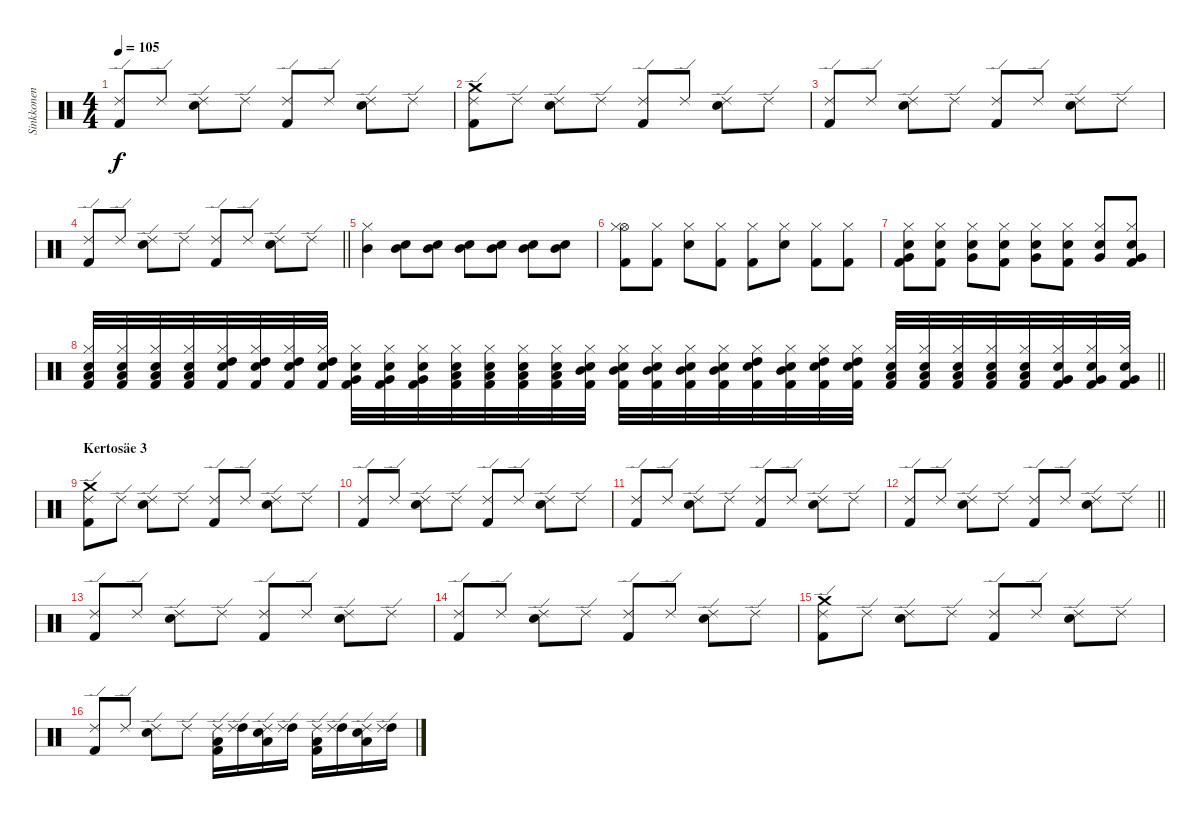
\track ("Sinkkonen" "Sinkkonen") {instrument percussion}
\staff {score}
\articulation defaults
\ts (4 4)
\tempo 105
\clef neutral
\ks c
("Ride (edge) 2" "Kick (hit) 2").8{dy f} "Ride (edge) 2".8 ("Ride (edge) 2" "Electric Snare (hit)").8 "Ride (edge) 2".8 ("Ride (edge) 2" "Kick (hit) 2").8 "Ride (edge) 2".8 ("Ride (edge) 2" "Electric Snare (hit)").8 "Ride (edge) 2".8 |
("Crash medium (hit)" "Ride (edge) 2" "Kick (hit) 2").8 "Ride (edge) 2".8 ("Ride (edge) 2" "Electric Snare (hit)").8 "Ride (edge) 2".8 ("Ride (edge) 2" "Kick (hit) 2").8 "Ride (edge) 2".8 ("Ride (edge) 2" "Electric Snare (hit)").8 "Ride (edge) 2".8 |
("Ride (edge) 2" "Kick (hit) 2").8 "Ride (edge) 2".8 ("Ride (edge) 2" "Electric Snare (hit)").8 "Ride (edge) 2".8 ("Ride (edge) 2" "Kick (hit) 2").8 "Ride (edge) 2".8 ("Ride (edge) 2" "Electric Snare (hit)").8 "Ride (edge) 2".8 |
\barLineRight lightlight
("Ride (edge) 2" "Kick (hit) 2").8 "Ride (edge) 2".8 ("Ride (edge) 2" "Electric Snare (hit)").8 "Ride (edge) 2".8 ("Ride (edge) 2" "Kick (hit) 2").8 "Ride (edge) 2".8 ("Ride (edge) 2" "Electric Snare (hit)").8 "Ride (edge) 2".8 |
("Mid Tom (hit)" "Hi-Hat (closed)").4 ("Mid Tom (hit)" "Electric Snare (hit)").8 ("Mid Tom (hit)" "Electric Snare (hit)").8 ("Mid Tom (hit)" "Electric Snare (hit)").8 ("Mid Tom (hit)" "Electric Snare (hit)").8 ("Mid Tom (hit)" "Electric Snare (hit)").8 ("Mid Tom (hit)" "Electric Snare (hit)").8 |
("Kick (hit) 2" "Hi-Hat (open)" "Hi-Hat (closed)").8 ("Kick (hit) 2" "Hi-Hat (closed)").8 ("Electric Snare (hit)" "Hi-Hat (closed)").8 ("Kick (hit) 2" "Hi-Hat (closed)").8 ("Kick (hit) 2" "Hi-Hat (closed)").8 ("Electric Snare (hit)" "Hi-Hat (closed)").8 ("Kick (hit) 2" "Hi-Hat (closed)").8 ("Kick (hit) 2" "Hi-Hat (closed)").8 |
("Electric Snare (hit)" "Very Low Tom (hit)" "Kick (hit) 2" "Hi-Hat (closed)").8 ("Electric Snare (hit)" "Kick (hit) 2" "Hi-Hat (closed)").8 ("Electric Snare (hit)" "Very Low Tom (hit)" "Hi-Hat (closed)").8 ("Electric Snare (hit)" "Kick (hit) 2" "Hi-Hat (closed)").8 ("Electric Snare (hit)" "Very Low Tom (hit)" "Hi-Hat (closed)").8 ("Electric Snare (hit)" "Kick (hit) 2" "Hi-Hat (closed)").8 ("Electric Snare (hit)" "Very Low Tom (hit)" "Hi-Hat (closed)").8 ("Electric Snare (hit)" "Kick (hit) 2" "Very Low Tom (hit)" "Hi-Hat (closed)").8 |
\barLineRight lightlight
("Hi-Hat (closed)" "Electric Snare (hit)" "Low Tom (hit)" "Kick (hit) 2").32 ("Hi-Hat (closed)" "Electric Snare (hit)" "Low Tom (hit)" "Kick (hit) 2").32 ("Hi-Hat (closed)" "Electric Snare (hit)" "Low Tom (hit)" "Kick (hit) 2").32 ("Hi-Hat (closed)" "Electric Snare (hit)" "Low Tom (hit)" "Kick (hit) 2").32 ("Hi-Hat (closed)" "Electric Snare (hit)" "High Tom (hit)" "Kick (hit) 2").32 ("Hi-Hat (closed)" "Electric Snare (hit)" "High Tom (hit)" "Kick (hit) 2").32 ("Hi-Hat (closed)" "Electric Snare (hit)" "High Tom (hit)" "Kick (hit) 2").32 ("Hi-Hat (closed)" "Electric Snare (hit)" "High Tom (hit)" "Kick (hit) 2").32 ("Hi-Hat (closed)" "Electric Snare (hit)" "Very Low Tom (hit)" "Kick (hit) 2").32 ("Hi-Hat (closed)" "Electric Snare (hit)" "Very Low Tom (hit)" "Kick (hit) 2").32 ("Hi-Hat (closed)" "Electric Snare (hit)" "Very Low Tom (hit)" "Kick (hit) 2").32 ("Hi-Hat (closed)" "Electric Snare (hit)" "Low Floor Tom (hit)" "Kick (hit) 2").32 ("Hi-Hat (closed)" "Electric Snare (hit)" "Low Floor Tom (hit)" "Kick (hit) 2").32 ("Hi-Hat (closed)" "Electric Snare (hit)" "Low Floor Tom (hit)" "Kick (hit) 2").32 ("Hi-Hat (closed)" "Electric Snare (hit)" "Low Floor Tom (hit)" "Kick (hit) 2").32 ("Hi-Hat (closed)" "Electric Snare (hit)" "Mid Tom (hit)" "Kick (hit) 2").32 ("Hi-Hat (closed)" "Electric Snare (hit)" "Mid Tom (hit)" "Kick (hit) 2").32 ("Hi-Hat (closed)" "Electric Snare (hit)" "Mid Tom (hit)" "Kick (hit) 2").32 ("Hi-Hat (closed)" "Electric Snare (hit)" "Mid Tom (hit)" "Kick (hit) 2").32 ("Hi-Hat (closed)" "Electric Snare (hit)" "Mid Tom (hit)" "Kick (hit) 2").32 ("Hi-Hat (closed)" "Electric Snare (hit)" "High Tom (hit)" "Kick (hit) 2").32 ("Hi-Hat (closed)" "Electric Snare (hit)" "Mid Tom (hit)" "Kick (hit) 2").32 ("Hi-Hat (closed)" "Electric Snare (hit)" "High Tom (hit)" "Kick (hit) 2").32 ("Hi-Hat (closed)" "Electric Snare (hit)" "High Tom (hit)" "Kick (hit) 2").32 ("Hi-Hat (closed)" "Electric Snare (hit)" "Low Tom (hit)" "Kick (hit) 2").32 ("Hi-Hat (closed)" "Electric Snare (hit)" "Low Tom (hit)" "Kick (hit) 2").32 ("Hi-Hat (closed)" "Electric Snare (hit)" "Low Tom (hit)" "Kick (hit) 2").32 ("Hi-Hat (closed)" "Electric Snare (hit)" "Low Tom (hit)" "Kick (hit) 2").32 ("Hi-Hat (closed)" "Electric Snare (hit)" "Low Tom (hit)" "Kick (hit) 2").32 ("Hi-Hat (closed)" "Electric Snare (hit)" "Very Low Tom (hit)" "Kick (hit) 2").32 ("Hi-Hat (closed)" "Electric Snare (hit)" "Very Low Tom (hit)" "Kick (hit) 2").32 ("Hi-Hat (closed)" "Electric Snare (hit)" "Very Low Tom (hit)" "Kick (hit) 2").32 |
\section ("" "Kertosäe 3")
("Ride (edge) 2" "Crash medium (hit)" "Kick (hit) 2").8 "Ride (edge) 2".8 ("Ride (edge) 2" "Electric Snare (hit)").8 "Ride (edge) 2".8 ("Ride (edge) 2" "Kick (hit) 2").8 "Ride (edge) 2".8 ("Ride (edge) 2" "Electric Snare (hit)").8 "Ride (edge) 2".8 |
("Ride (edge) 2" "Kick (hit) 2").8 "Ride (edge) 2".8 ("Ride (edge) 2" "Electric Snare (hit)").8 "Ride (edge) 2".8 ("Ride (edge) 2" "Kick (hit) 2").8 "Ride (edge) 2".8 ("Ride (edge) 2" "Electric Snare (hit)").8 "Ride (edge) 2".8 |
("Ride (edge) 2" "Kick (hit) 2").8 "Ride (edge) 2".8 ("Ride (edge) 2" "Electric Snare (hit)").8 "Ride (edge) 2".8 ("Ride (edge) 2" "Kick (hit) 2").8 "Ride (edge) 2".8 ("Ride (edge) 2" "Electric Snare (hit)").8 "Ride (edge) 2".8 |
\barLineRight lightlight
("Ride (edge) 2" "Kick (hit) 2").8 "Ride (edge) 2".8 ("Ride (edge) 2" "Electric Snare (hit)").8 "Ride (edge) 2".8 ("Ride (edge) 2" "Kick (hit) 2").8 "Ride (edge) 2".8 ("Ride (edge) 2" "Electric Snare (hit)").8 "Ride (edge) 2".8 |
("Ride (edge) 2" "Kick (hit) 2").8 "Ride (edge) 2".8 ("Ride (edge) 2" "Electric Snare (hit)").8 "Ride (edge) 2".8 ("Ride (edge) 2" "Kick (hit) 2").8 "Ride (edge) 2".8 ("Ride (edge) 2" "Electric Snare (hit)").8 "Ride (edge) 2".8 |
("Ride (edge) 2" "Kick (hit) 2").8 "Ride (edge) 2".8 ("Ride (edge) 2" "Electric Snare (hit)").8 "Ride (edge) 2".8 ("Ride (edge) 2" "Kick (hit) 2").8 "Ride (edge) 2".8 ("Ride (edge) 2" "Electric Snare (hit)").8 "Ride (edge) 2".8 |
("Crash medium (hit)" "Ride (edge) 2" "Kick (hit) 2").8 "Ride (edge) 2".8 ("Ride (edge) 2" "Electric Snare (hit)").8 "Ride (edge) 2".8 ("Ride (edge) 2" "Kick (hit) 2").8 "Ride (edge) 2".8 ("Ride (edge) 2" "Electric Snare (hit)").8 "Ride (edge) 2".8 |
("Ride (edge) 2" "Kick (hit) 2").8 "Ride (edge) 2".8 ("Ride (edge) 2" "Electric Snare (hit)").8 "Ride (edge) 2".8 ("Low Tom (hit)" "Ride (edge) 2" "Kick (hit) 2").16 ("High Tom (hit)" "Ride (edge) 2").16 ("Low Tom (hit)" "Ride (edge) 2" "Electric Snare (hit)").16 ("High Tom (hit)" "Ride (edge) 2").16 ("Low Tom (hit)" "Ride (edge) 2" "Kick (hit) 2").16 ("High Tom (hit)" "Ride (edge) 2").16 ("Low Tom (hit)" "Ride (edge) 2" "Electric Snare (hit)").16 ("High Tom (hit)" "Ride (edge) 2").16
